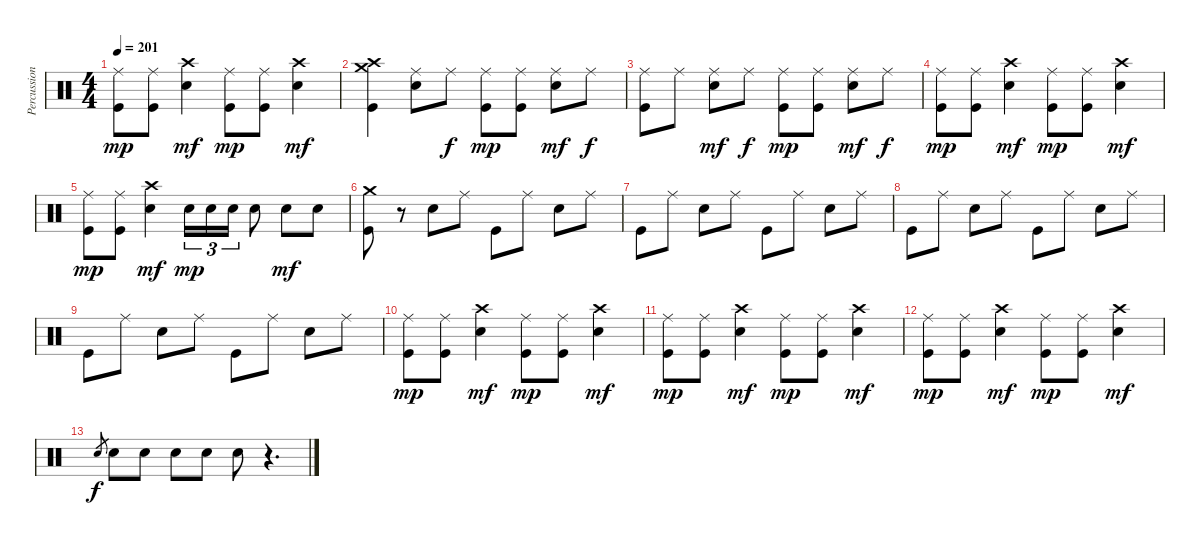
\track ("Percussion" "Percussion") {instrument percussion}
\staff {score}
\articulation defaults
\ts (4 4)
\tempo 201
\clef neutral
\ks c
("Ride (middle)" "Kick (hit)").8{dy mp} ("Ride (middle)" "Kick (hit)").8 ("Crash high (hit)" "Electric Snare (hit)").4{dy mf} ("Ride (middle)" "Kick (hit)").8{dy mp} ("Ride (middle)" "Kick (hit)").8 ("Crash high (hit)" "Electric Snare (hit)").4{dy mf} |
("Crash medium (hit)" "Crash high (hit)" "Kick (hit)").4 ("Ride (middle)" "Electric Snare (hit)").8 "Ride (middle)".8{dy f} ("Ride (middle)" "Kick (hit)").8{dy mp} ("Ride (middle)" "Kick (hit)").8 ("Ride (middle)" "Electric Snare (hit)").8{dy mf} "Ride (middle)".8{dy f} |
("Ride (middle)" "Kick (hit)").8 "Ride (middle)".8 ("Ride (middle)" "Electric Snare (hit)").8{dy mf} "Ride (middle)".8{dy f} ("Ride (middle)" "Kick (hit)").8{dy mp} ("Ride (middle)" "Kick (hit)").8 ("Ride (middle)" "Electric Snare (hit)").8{dy mf} "Ride (middle)".8{dy f} |
("Ride (middle)" "Kick (hit)").8{dy mp} ("Ride (middle)" "Kick (hit)").8 ("Crash high (hit)" "Electric Snare (hit)").4{dy mf} ("Ride (middle)" "Kick (hit)").8{dy mp} ("Ride (middle)" "Kick (hit)").8 ("Crash high (hit)" "Electric Snare (hit)").4{dy mf} |
("Ride (middle)" "Kick (hit)").8{dy mp} ("Ride (middle)" "Kick (hit)").8 ("Crash high (hit)" "Electric Snare (hit)").4{dy mf} "Electric Snare (hit)".16{tu (3 2) dy mp} "Electric Snare (hit)".16{tu (3 2)} "Electric Snare (hit)".16{tu (3 2)} "Electric Snare (hit)".8 "Electric Snare (hit)".8{dy mf} "Electric Snare (hit)".8 |
("Crash medium (hit)" "Kick (hit)").8 r.8 "Electric Snare (hit)".8 "Ride (middle)".8 "Kick (hit)".8 "Ride (middle)".8 "Electric Snare (hit)".8 "Ride (middle)".8 |
"Kick (hit)".8 "Ride (middle)".8 "Electric Snare (hit)".8 "Ride (middle)".8 "Kick (hit)".8 "Ride (middle)".8 "Electric Snare (hit)".8 "Ride (middle)".8 |
"Kick (hit)".8 "Ride (middle)".8 "Electric Snare (hit)".8 "Ride (middle)".8 "Kick (hit)".8 "Ride (middle)".8 "Electric Snare (hit)".8 "Ride (middle)".8 |
"Kick (hit)".8 "Ride (middle)".8 "Electric Snare (hit)".8 "Ride (middle)".8 "Kick (hit)".8 "Ride (middle)".8 "Electric Snare (hit)".8 "Ride (middle)".8 |
("Ride (middle)" "Kick (hit)").8{dy mp} ("Ride (middle)" "Kick (hit)").8 ("Crash high (hit)" "Electric Snare (hit)").4{dy mf} ("Ride (middle)" "Kick (hit)").8{dy mp} ("Ride (middle)" "Kick (hit)").8 ("Crash high (hit)" "Electric Snare (hit)").4{dy mf} |
("Ride (middle)" "Kick (hit)").8{dy mp} ("Ride (middle)" "Kick (hit)").8 ("Crash high (hit)" "Electric Snare (hit)").4{dy mf} ("Ride (middle)" "Kick (hit)").8{dy mp} ("Ride (middle)" "Kick (hit)").8 ("Crash high (hit)" "Electric Snare (hit)").4{dy mf} |
("Ride (middle)" "Kick (hit)").8{dy mp} ("Ride (middle)" "Kick (hit)").8 ("Crash high (hit)" "Electric Snare (hit)").4{dy mf} ("Ride (middle)" "Kick (hit)").8{dy mp} ("Ride (middle)" "Kick (hit)").8 ("Crash high (hit)" "Electric Snare (hit)").4{dy mf} |
"Electric Snare (hit)".8{gr dy f} "Electric Snare (hit)".8 "Electric Snare (hit)".8 "Electric Snare (hit)".8 "Electric Snare (hit)".8 "Electric Snare (hit)".8 r.4{d}
